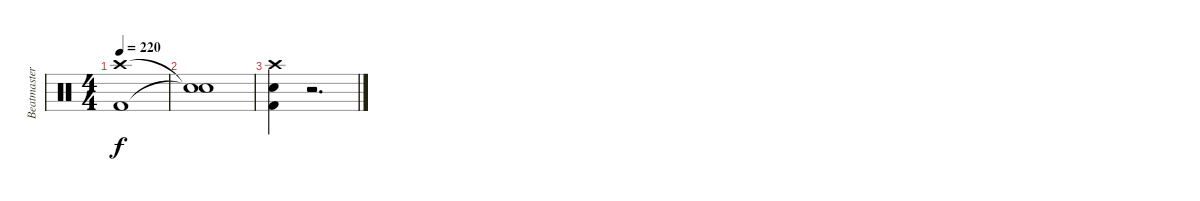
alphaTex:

\track ("Beatmaster V" "Beatmaster") {instrument percussion}
\staff {score}
\articulation defaults
\ts (4 4)
\tempo 220
\clef neutral
\ks c
("Crash high (hit)" "Kick (hit) 2").1{dy f} |
("Snare (hit)"{t} "Snare (hit)"{t}).1 |
("Crash high (hit)" "Snare (hit) 2" "Kick (hit) 2").4 r.2{d}
